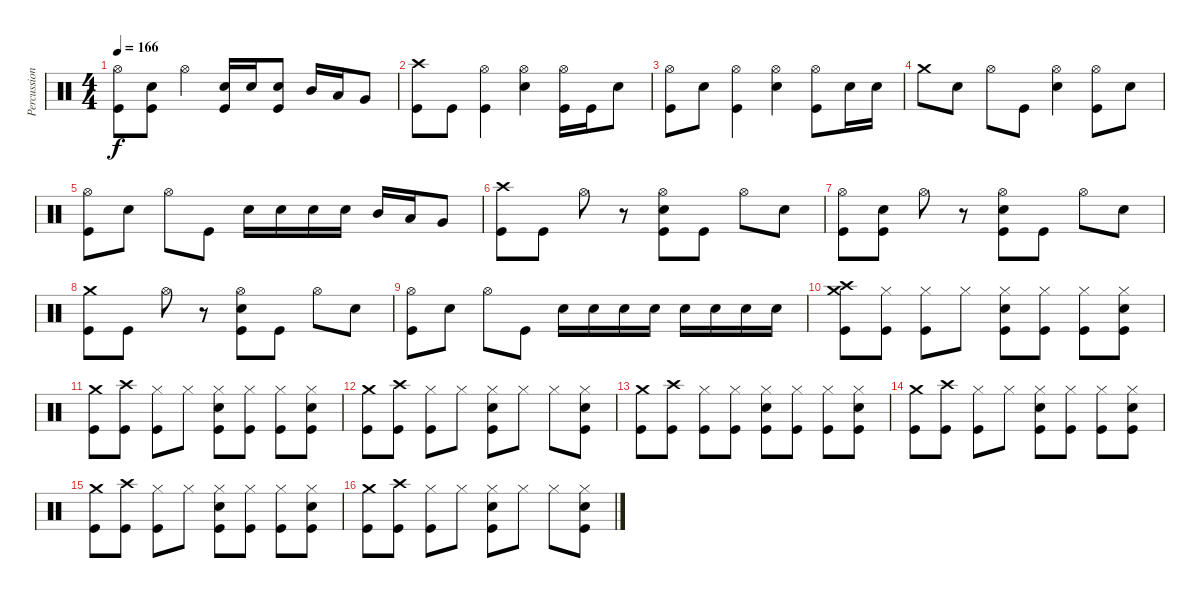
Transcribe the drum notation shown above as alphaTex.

\track ("Percussion" "Percussion") {instrument percussion}
\staff {score}
\articulation defaults
\ts (4 4)
\tempo 166
\clef neutral
\ks c
("Hi-Hat (open)" "Kick (hit)").8{dy f} ("Electric Snare (hit)" "Kick (hit)").8 "Hi-Hat (open)".4 ("Electric Snare (hit)" "Kick (hit)").16 "Electric Snare (hit)".16 ("Electric Snare (hit)" "Kick (hit)").8 "Mid Tom (hit)".16 "Low Tom (hit)".16 "Very Low Tom (hit)".8 |
("Crash high (hit)" "Kick (hit)").8 "Kick (hit)".8 ("Hi-Hat (open)" "Kick (hit)").4 ("Hi-Hat (open)" "Electric Snare (hit)").4 ("Hi-Hat (open)" "Kick (hit)").16 "Kick (hit)".16 "Electric Snare (hit)".8 |
("Hi-Hat (open)" "Kick (hit)").8 "Electric Snare (hit)".8 ("Hi-Hat (open)" "Kick (hit)").4 ("Hi-Hat (open)" "Electric Snare (hit)").4 ("Hi-Hat (open)" "Kick (hit)").8 "Electric Snare (hit)".16 "Electric Snare (hit)".16 |
"Crash medium (hit)".8 "Electric Snare (hit)".8 "Hi-Hat (open)".8 "Kick (hit)".8 ("Hi-Hat (open)" "Electric Snare (hit)").4 ("Hi-Hat (open)" "Kick (hit)").8 "Electric Snare (hit)".8 |
("Hi-Hat (open)" "Kick (hit)").8 "Electric Snare (hit)".8 "Hi-Hat (open)".8 "Kick (hit)".8 "Electric Snare (hit)".16 "Electric Snare (hit)".16 "Electric Snare (hit)".16 "Electric Snare (hit)".16 "Mid Tom (hit)".16 "Low Tom (hit)".16 "Very Low Tom (hit)".8 |
("Crash high (hit)" "Kick (hit)").8 "Kick (hit)".8 "Hi-Hat (open)".8 r.8 ("Hi-Hat (open)" "Electric Snare (hit)" "Kick (hit)").8 "Kick (hit)".8 "Hi-Hat (open)".8 "Electric Snare (hit)".8 |
("Hi-Hat (open)" "Kick (hit)").8 ("Electric Snare (hit)" "Kick (hit)").8 "Hi-Hat (open)".8 r.8 ("Hi-Hat (open)" "Electric Snare (hit)" "Kick (hit)").8 "Kick (hit)".8 "Hi-Hat (open)".8 "Electric Snare (hit)".8 |
("Crash medium (hit)" "Kick (hit)").8 "Kick (hit)".8 "Hi-Hat (open)".8 r.8 ("Hi-Hat (open)" "Electric Snare (hit)" "Kick (hit)").8 "Kick (hit)".8 "Hi-Hat (open)".8 "Electric Snare (hit)".8 |
("Hi-Hat (open)" "Kick (hit)").8 "Electric Snare (hit)".8 "Hi-Hat (open)".8 "Kick (hit)".8 "Electric Snare (hit)".16 "Electric Snare (hit)".16 "Electric Snare (hit)".16 "Electric Snare (hit)".16 "Electric Snare (hit)".16 "Electric Snare (hit)".16 "Electric Snare (hit)".16 "Electric Snare (hit)".16 |
("Crash high (hit)" "Crash medium (hit)" "Kick (hit)").8 ("Hi-Hat (closed)" "Kick (hit)").8 ("Hi-Hat (closed)" "Kick (hit)").8 "Hi-Hat (closed)".8 ("Hi-Hat (closed)" "Electric Snare (hit)" "Kick (hit)").8 ("Hi-Hat (closed)" "Kick (hit)").8 ("Hi-Hat (closed)" "Kick (hit)").8 ("Hi-Hat (closed)" "Electric Snare (hit)" "Kick (hit)").8 |
("Crash medium (hit)" "Kick (hit)").8 ("Crash high (hit)" "Kick (hit)").8 ("Hi-Hat (closed)" "Kick (hit)").8 "Hi-Hat (closed)".8 ("Hi-Hat (closed)" "Electric Snare (hit)" "Kick (hit)").8 ("Hi-Hat (closed)" "Kick (hit)").8 ("Hi-Hat (closed)" "Kick (hit)").8 ("Hi-Hat (closed)" "Electric Snare (hit)" "Kick (hit)").8 |
("Crash medium (hit)" "Kick (hit)").8 ("Crash high (hit)" "Kick (hit)").8 ("Hi-Hat (closed)" "Kick (hit)").8 "Hi-Hat (closed)".8 ("Hi-Hat (closed)" "Electric Snare (hit)" "Kick (hit)").8 "Hi-Hat (closed)".8 "Hi-Hat (closed)".8 ("Hi-Hat (closed)" "Electric Snare (hit)" "Kick (hit)").8 |
("Crash medium (hit)" "Kick (hit)").8 ("Crash high (hit)" "Kick (hit)").8 ("Hi-Hat (closed)" "Kick (hit)").8 ("Hi-Hat (closed)" "Kick (hit)").8 ("Hi-Hat (closed)" "Electric Snare (hit)" "Kick (hit)").8 ("Hi-Hat (closed)" "Kick (hit)").8 ("Hi-Hat (closed)" "Kick (hit)").8 ("Hi-Hat (closed)" "Electric Snare (hit)" "Kick (hit)").8 |
("Crash medium (hit)" "Kick (hit)").8 ("Crash high (hit)" "Kick (hit)").8 ("Hi-Hat (closed)" "Kick (hit)").8 "Hi-Hat (closed)".8 ("Hi-Hat (closed)" "Electric Snare (hit)" "Kick (hit)").8 ("Hi-Hat (closed)" "Kick (hit)").8 ("Hi-Hat (closed)" "Kick (hit)").8 ("Hi-Hat (closed)" "Electric Snare (hit)" "Kick (hit)").8 |
("Crash medium (hit)" "Kick (hit)").8 ("Crash high (hit)" "Kick (hit)").8 ("Hi-Hat (closed)" "Kick (hit)").8 "Hi-Hat (closed)".8 ("Hi-Hat (closed)" "Electric Snare (hit)" "Kick (hit)").8 ("Hi-Hat (closed)" "Kick (hit)").8 ("Hi-Hat (closed)" "Kick (hit)").8 ("Hi-Hat (closed)" "Electric Snare (hit)" "Kick (hit)").8 |
("Crash medium (hit)" "Kick (hit)").8 ("Crash high (hit)" "Kick (hit)").8 ("Hi-Hat (closed)" "Kick (hit)").8 "Hi-Hat (closed)".8 ("Hi-Hat (closed)" "Electric Snare (hit)" "Kick (hit)").8 "Hi-Hat (closed)".8 "Hi-Hat (closed)".8 ("Hi-Hat (closed)" "Electric Snare (hit)" "Kick (hit)").8
